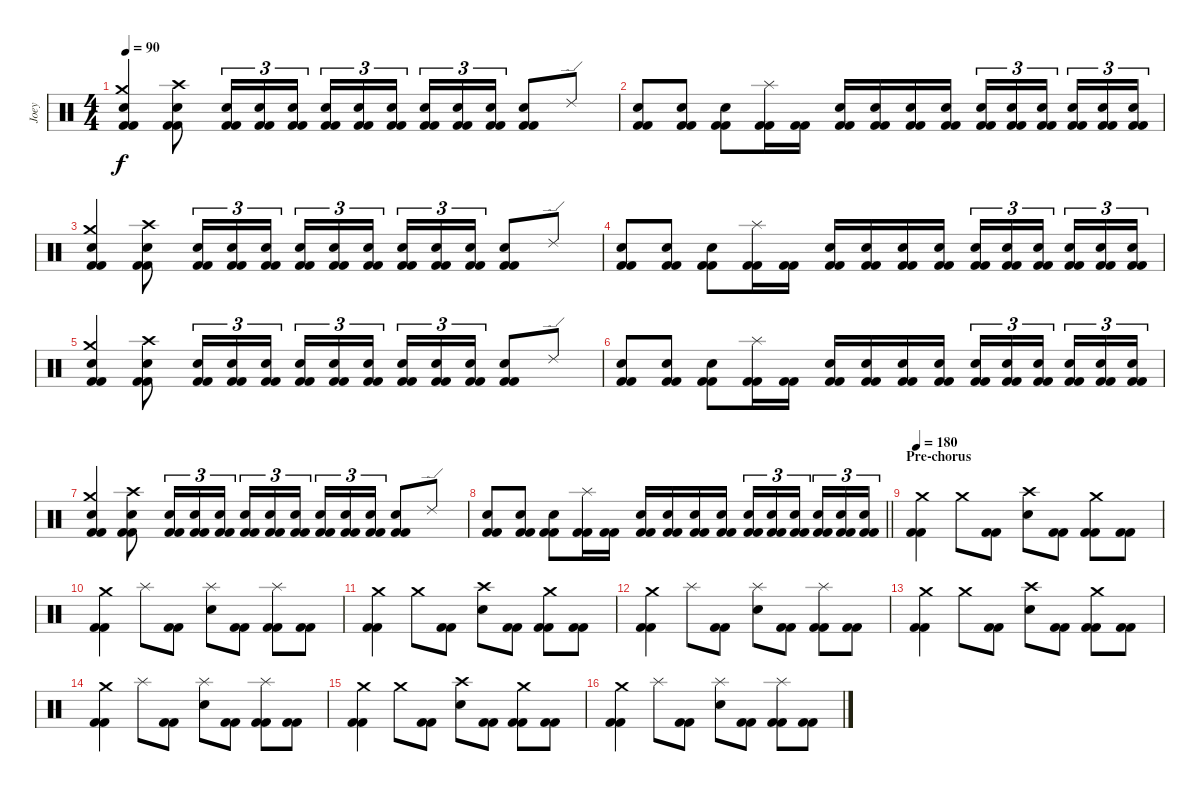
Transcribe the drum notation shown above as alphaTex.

\track ("Joey" "Joey") {instrument percussion}
\staff {score}
\articulation defaults
\ts (4 4)
\tempo 90
\clef neutral
\ks c
("Electric Snare (hit)" "Crash medium (hit)" "Kick (hit) 2" "Kick (hit) 2").4{dy f} ("Electric Snare (hit)" "Crash high (hit)" "Kick (hit) 2" "Kick (hit) 2").8 ("Electric Snare (hit)" "Kick (hit) 2" "Kick (hit) 2").16{tu (3 2)} ("Electric Snare (hit)" "Kick (hit) 2" "Kick (hit) 2").16{tu (3 2)} ("Electric Snare (hit)" "Kick (hit) 2" "Kick (hit) 2").16{tu (3 2)} ("Electric Snare (hit)" "Kick (hit) 2" "Kick (hit) 2").16{tu (3 2)} ("Electric Snare (hit)" "Kick (hit) 2" "Kick (hit) 2").16{tu (3 2)} ("Electric Snare (hit)" "Kick (hit) 2" "Kick (hit) 2").16{tu (3 2) beam splitsecondary} ("Electric Snare (hit)" "Kick (hit) 2" "Kick (hit) 2").16{tu (3 2)} ("Electric Snare (hit)" "Kick (hit) 2" "Kick (hit) 2").16{tu (3 2)} ("Electric Snare (hit)" "Kick (hit) 2" "Kick (hit) 2").16{tu (3 2)} ("Electric Snare (hit)" "Kick (hit) 2" "Kick (hit) 2").8 "Ride (edge) 2".8 |
("Electric Snare (hit)" "Kick (hit) 2" "Kick (hit) 2").8 ("Electric Snare (hit)" "Kick (hit) 2" "Kick (hit) 2").8 ("Electric Snare (hit)" "Kick (hit) 2" "Kick (hit) 2").8 ("Splash (hit)" "Kick (hit) 2" "Kick (hit) 2").16 ("Kick (hit) 2" "Kick (hit) 2").16 ("Electric Snare (hit)" "Kick (hit) 2" "Kick (hit) 2").16 ("Electric Snare (hit)" "Kick (hit) 2" "Kick (hit) 2").16 ("Electric Snare (hit)" "Kick (hit) 2" "Kick (hit) 2").16 ("Electric Snare (hit)" "Kick (hit) 2" "Kick (hit) 2").16 ("Electric Snare (hit)" "Kick (hit) 2" "Kick (hit) 2").16{tu (3 2)} ("Electric Snare (hit)" "Kick (hit) 2" "Kick (hit) 2").16{tu (3 2)} ("Electric Snare (hit)" "Kick (hit) 2" "Kick (hit) 2").16{tu (3 2) beam splitsecondary} ("Electric Snare (hit)" "Kick (hit) 2" "Kick (hit) 2").16{tu (3 2)} ("Electric Snare (hit)" "Kick (hit) 2" "Kick (hit) 2").16{tu (3 2)} ("Electric Snare (hit)" "Kick (hit) 2" "Kick (hit) 2").16{tu (3 2)} |
("Electric Snare (hit)" "Crash medium (hit)" "Kick (hit) 2" "Kick (hit) 2").4 ("Electric Snare (hit)" "Crash high (hit)" "Kick (hit) 2" "Kick (hit) 2").8 ("Electric Snare (hit)" "Kick (hit) 2" "Kick (hit) 2").16{tu (3 2)} ("Electric Snare (hit)" "Kick (hit) 2" "Kick (hit) 2").16{tu (3 2)} ("Electric Snare (hit)" "Kick (hit) 2" "Kick (hit) 2").16{tu (3 2)} ("Electric Snare (hit)" "Kick (hit) 2" "Kick (hit) 2").16{tu (3 2)} ("Electric Snare (hit)" "Kick (hit) 2" "Kick (hit) 2").16{tu (3 2)} ("Electric Snare (hit)" "Kick (hit) 2" "Kick (hit) 2").16{tu (3 2) beam splitsecondary} ("Electric Snare (hit)" "Kick (hit) 2" "Kick (hit) 2").16{tu (3 2)} ("Electric Snare (hit)" "Kick (hit) 2" "Kick (hit) 2").16{tu (3 2)} ("Electric Snare (hit)" "Kick (hit) 2" "Kick (hit) 2").16{tu (3 2)} ("Electric Snare (hit)" "Kick (hit) 2" "Kick (hit) 2").8 "Ride (edge) 2".8 |
("Electric Snare (hit)" "Kick (hit) 2" "Kick (hit) 2").8 ("Electric Snare (hit)" "Kick (hit) 2" "Kick (hit) 2").8 ("Electric Snare (hit)" "Kick (hit) 2" "Kick (hit) 2").8 ("Splash (hit)" "Kick (hit) 2" "Kick (hit) 2").16 ("Kick (hit) 2" "Kick (hit) 2").16 ("Electric Snare (hit)" "Kick (hit) 2" "Kick (hit) 2").16 ("Electric Snare (hit)" "Kick (hit) 2" "Kick (hit) 2").16 ("Electric Snare (hit)" "Kick (hit) 2" "Kick (hit) 2").16 ("Electric Snare (hit)" "Kick (hit) 2" "Kick (hit) 2").16 ("Electric Snare (hit)" "Kick (hit) 2" "Kick (hit) 2").16{tu (3 2)} ("Electric Snare (hit)" "Kick (hit) 2" "Kick (hit) 2").16{tu (3 2)} ("Electric Snare (hit)" "Kick (hit) 2" "Kick (hit) 2").16{tu (3 2) beam splitsecondary} ("Electric Snare (hit)" "Kick (hit) 2" "Kick (hit) 2").16{tu (3 2)} ("Electric Snare (hit)" "Kick (hit) 2" "Kick (hit) 2").16{tu (3 2)} ("Electric Snare (hit)" "Kick (hit) 2" "Kick (hit) 2").16{tu (3 2)} |
("Electric Snare (hit)" "Crash medium (hit)" "Kick (hit) 2" "Kick (hit) 2").4 ("Electric Snare (hit)" "Crash high (hit)" "Kick (hit) 2" "Kick (hit) 2").8 ("Electric Snare (hit)" "Kick (hit) 2" "Kick (hit) 2").16{tu (3 2)} ("Electric Snare (hit)" "Kick (hit) 2" "Kick (hit) 2").16{tu (3 2)} ("Electric Snare (hit)" "Kick (hit) 2" "Kick (hit) 2").16{tu (3 2)} ("Electric Snare (hit)" "Kick (hit) 2" "Kick (hit) 2").16{tu (3 2)} ("Electric Snare (hit)" "Kick (hit) 2" "Kick (hit) 2").16{tu (3 2)} ("Electric Snare (hit)" "Kick (hit) 2" "Kick (hit) 2").16{tu (3 2) beam splitsecondary} ("Electric Snare (hit)" "Kick (hit) 2" "Kick (hit) 2").16{tu (3 2)} ("Electric Snare (hit)" "Kick (hit) 2" "Kick (hit) 2").16{tu (3 2)} ("Electric Snare (hit)" "Kick (hit) 2" "Kick (hit) 2").16{tu (3 2)} ("Electric Snare (hit)" "Kick (hit) 2" "Kick (hit) 2").8 "Ride (edge) 2".8 |
("Electric Snare (hit)" "Kick (hit) 2" "Kick (hit) 2").8 ("Electric Snare (hit)" "Kick (hit) 2" "Kick (hit) 2").8 ("Electric Snare (hit)" "Kick (hit) 2" "Kick (hit) 2").8 ("Splash (hit)" "Kick (hit) 2" "Kick (hit) 2").16 ("Kick (hit) 2" "Kick (hit) 2").16 ("Electric Snare (hit)" "Kick (hit) 2" "Kick (hit) 2").16 ("Electric Snare (hit)" "Kick (hit) 2" "Kick (hit) 2").16 ("Electric Snare (hit)" "Kick (hit) 2" "Kick (hit) 2").16 ("Electric Snare (hit)" "Kick (hit) 2" "Kick (hit) 2").16 ("Electric Snare (hit)" "Kick (hit) 2" "Kick (hit) 2").16{tu (3 2)} ("Electric Snare (hit)" "Kick (hit) 2" "Kick (hit) 2").16{tu (3 2)} ("Electric Snare (hit)" "Kick (hit) 2" "Kick (hit) 2").16{tu (3 2) beam splitsecondary} ("Electric Snare (hit)" "Kick (hit) 2" "Kick (hit) 2").16{tu (3 2)} ("Electric Snare (hit)" "Kick (hit) 2" "Kick (hit) 2").16{tu (3 2)} ("Electric Snare (hit)" "Kick (hit) 2" "Kick (hit) 2").16{tu (3 2)} |
("Electric Snare (hit)" "Crash medium (hit)" "Kick (hit) 2" "Kick (hit) 2").4 ("Electric Snare (hit)" "Crash high (hit)" "Kick (hit) 2" "Kick (hit) 2").8 ("Electric Snare (hit)" "Kick (hit) 2" "Kick (hit) 2").16{tu (3 2)} ("Electric Snare (hit)" "Kick (hit) 2" "Kick (hit) 2").16{tu (3 2)} ("Electric Snare (hit)" "Kick (hit) 2" "Kick (hit) 2").16{tu (3 2)} ("Electric Snare (hit)" "Kick (hit) 2" "Kick (hit) 2").16{tu (3 2)} ("Electric Snare (hit)" "Kick (hit) 2" "Kick (hit) 2").16{tu (3 2)} ("Electric Snare (hit)" "Kick (hit) 2" "Kick (hit) 2").16{tu (3 2) beam splitsecondary} ("Electric Snare (hit)" "Kick (hit) 2" "Kick (hit) 2").16{tu (3 2)} ("Electric Snare (hit)" "Kick (hit) 2" "Kick (hit) 2").16{tu (3 2)} ("Electric Snare (hit)" "Kick (hit) 2" "Kick (hit) 2").16{tu (3 2)} ("Electric Snare (hit)" "Kick (hit) 2" "Kick (hit) 2").8 "Ride (edge) 2".8 |
\barLineRight lightlight
("Electric Snare (hit)" "Kick (hit) 2" "Kick (hit) 2").8 ("Electric Snare (hit)" "Kick (hit) 2" "Kick (hit) 2").8 ("Electric Snare (hit)" "Kick (hit) 2" "Kick (hit) 2").8 ("Splash (hit)" "Kick (hit) 2" "Kick (hit) 2").16 ("Kick (hit) 2" "Kick (hit) 2").16 ("Electric Snare (hit)" "Kick (hit) 2" "Kick (hit) 2").16 ("Electric Snare (hit)" "Kick (hit) 2" "Kick (hit) 2").16 ("Electric Snare (hit)" "Kick (hit) 2" "Kick (hit) 2").16 ("Electric Snare (hit)" "Kick (hit) 2" "Kick (hit) 2").16 ("Electric Snare (hit)" "Kick (hit) 2" "Kick (hit) 2").16{tu (3 2)} ("Electric Snare (hit)" "Kick (hit) 2" "Kick (hit) 2").16{tu (3 2)} ("Electric Snare (hit)" "Kick (hit) 2" "Kick (hit) 2").16{tu (3 2) beam splitsecondary} ("Electric Snare (hit)" "Kick (hit) 2" "Kick (hit) 2").16{tu (3 2)} ("Electric Snare (hit)" "Kick (hit) 2" "Kick (hit) 2").16{tu (3 2)} ("Electric Snare (hit)" "Kick (hit) 2" "Kick (hit) 2").16{tu (3 2)} |
\section ("" "Pre-chorus")
\tempo 180
("Crash medium (hit)" "Kick (hit) 2" "Kick (hit) 2").4 "Crash medium (hit)".8 ("Kick (hit) 2" "Kick (hit) 2").8 ("Electric Snare (hit)" "Crash high (hit)").8 ("Kick (hit) 2" "Kick (hit) 2").8 ("Crash medium (hit)" "Kick (hit) 2" "Kick (hit) 2").8 ("Kick (hit) 2" "Kick (hit) 2").8 |
("Crash medium (hit)" "Kick (hit) 2" "Kick (hit) 2").4 "Splash (hit)".8 ("Kick (hit) 2" "Kick (hit) 2").8 ("Electric Snare (hit)" "Splash (hit)").8 ("Kick (hit) 2" "Kick (hit) 2").8 ("Splash (hit)" "Kick (hit) 2" "Kick (hit) 2").8 ("Kick (hit) 2" "Kick (hit) 2").8 |
("Crash medium (hit)" "Kick (hit) 2" "Kick (hit) 2").4 "Crash medium (hit)".8 ("Kick (hit) 2" "Kick (hit) 2").8 ("Electric Snare (hit)" "Crash high (hit)").8 ("Kick (hit) 2" "Kick (hit) 2").8 ("Crash medium (hit)" "Kick (hit) 2" "Kick (hit) 2").8 ("Kick (hit) 2" "Kick (hit) 2").8 |
("Crash medium (hit)" "Kick (hit) 2" "Kick (hit) 2").4 "Splash (hit)".8 ("Kick (hit) 2" "Kick (hit) 2").8 ("Electric Snare (hit)" "Splash (hit)").8 ("Kick (hit) 2" "Kick (hit) 2").8 ("Splash (hit)" "Kick (hit) 2" "Kick (hit) 2").8 ("Kick (hit) 2" "Kick (hit) 2").8 |
("Crash medium (hit)" "Kick (hit) 2" "Kick (hit) 2").4 "Crash medium (hit)".8 ("Kick (hit) 2" "Kick (hit) 2").8 ("Electric Snare (hit)" "Crash high (hit)").8 ("Kick (hit) 2" "Kick (hit) 2").8 ("Crash medium (hit)" "Kick (hit) 2" "Kick (hit) 2").8 ("Kick (hit) 2" "Kick (hit) 2").8 |
("Crash medium (hit)" "Kick (hit) 2" "Kick (hit) 2").4 "Splash (hit)".8 ("Kick (hit) 2" "Kick (hit) 2").8 ("Electric Snare (hit)" "Splash (hit)").8 ("Kick (hit) 2" "Kick (hit) 2").8 ("Splash (hit)" "Kick (hit) 2" "Kick (hit) 2").8 ("Kick (hit) 2" "Kick (hit) 2").8 |
("Crash medium (hit)" "Kick (hit) 2" "Kick (hit) 2").4 "Crash medium (hit)".8 ("Kick (hit) 2" "Kick (hit) 2").8 ("Electric Snare (hit)" "Crash high (hit)").8 ("Kick (hit) 2" "Kick (hit) 2").8 ("Crash medium (hit)" "Kick (hit) 2" "Kick (hit) 2").8 ("Kick (hit) 2" "Kick (hit) 2").8 |
("Crash medium (hit)" "Kick (hit) 2" "Kick (hit) 2").4 "Splash (hit)".8 ("Kick (hit) 2" "Kick (hit) 2").8 ("Electric Snare (hit)" "Splash (hit)").8 ("Kick (hit) 2" "Kick (hit) 2").8 ("Splash (hit)" "Kick (hit) 2" "Kick (hit) 2").8 ("Kick (hit) 2" "Kick (hit) 2").8
